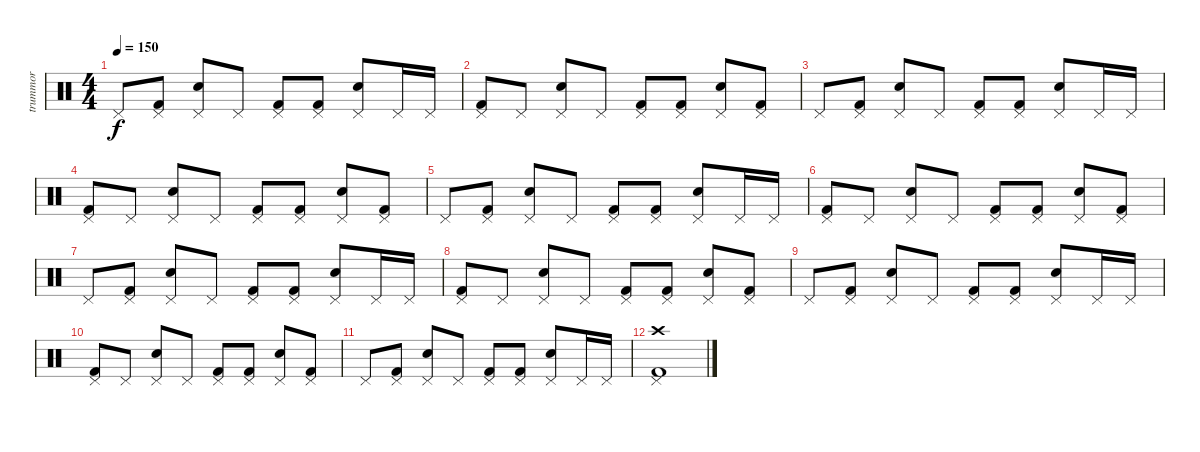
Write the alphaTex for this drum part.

\track ("trummor" "trummor") {instrument percussion}
\staff {score}
\articulation defaults
\ts (4 4)
\tempo 150
\clef neutral
\ks c "Pedal Hi-Hat (hit)".8{dy f}
("Pedal Hi-Hat (hit)" "Kick (hit) 2").8 ("Pedal Hi-Hat (hit)" "Snare (hit) 2").8 "Pedal Hi-Hat (hit)".8 ("Pedal Hi-Hat (hit)" "Kick (hit) 2").8 ("Pedal Hi-Hat (hit)" "Kick (hit) 2").8 ("Pedal Hi-Hat (hit)" "Snare (hit) 2").8 "Pedal Hi-Hat (hit)".16 "Pedal Hi-Hat (hit)".16 |
("Pedal Hi-Hat (hit)" "Kick (hit) 2").8 "Pedal Hi-Hat (hit)".8 ("Pedal Hi-Hat (hit)" "Snare (hit) 2").8 "Pedal Hi-Hat (hit)".8 ("Pedal Hi-Hat (hit)" "Kick (hit) 2").8 ("Pedal Hi-Hat (hit)" "Kick (hit) 2").8 ("Pedal Hi-Hat (hit)" "Snare (hit) 2").8 ("Pedal Hi-Hat (hit)" "Kick (hit) 2").8 |
"Pedal Hi-Hat (hit)".8 ("Pedal Hi-Hat (hit)" "Kick (hit) 2").8 ("Pedal Hi-Hat (hit)" "Snare (hit) 2").8 "Pedal Hi-Hat (hit)".8 ("Pedal Hi-Hat (hit)" "Kick (hit) 2").8 ("Pedal Hi-Hat (hit)" "Kick (hit) 2").8 ("Pedal Hi-Hat (hit)" "Snare (hit) 2").8 "Pedal Hi-Hat (hit)".16 "Pedal Hi-Hat (hit)".16 |
("Pedal Hi-Hat (hit)" "Kick (hit) 2").8 "Pedal Hi-Hat (hit)".8 ("Pedal Hi-Hat (hit)" "Snare (hit) 2").8 "Pedal Hi-Hat (hit)".8 ("Pedal Hi-Hat (hit)" "Kick (hit) 2").8 ("Pedal Hi-Hat (hit)" "Kick (hit) 2").8 ("Pedal Hi-Hat (hit)" "Snare (hit) 2").8 ("Pedal Hi-Hat (hit)" "Kick (hit) 2").8 |
"Pedal Hi-Hat (hit)".8 ("Pedal Hi-Hat (hit)" "Kick (hit) 2").8 ("Pedal Hi-Hat (hit)" "Snare (hit) 2").8 "Pedal Hi-Hat (hit)".8 ("Pedal Hi-Hat (hit)" "Kick (hit) 2").8 ("Pedal Hi-Hat (hit)" "Kick (hit) 2").8 ("Pedal Hi-Hat (hit)" "Snare (hit) 2").8 "Pedal Hi-Hat (hit)".16 "Pedal Hi-Hat (hit)".16 |
("Pedal Hi-Hat (hit)" "Kick (hit) 2").8 "Pedal Hi-Hat (hit)".8 ("Pedal Hi-Hat (hit)" "Snare (hit) 2").8 "Pedal Hi-Hat (hit)".8 ("Pedal Hi-Hat (hit)" "Kick (hit) 2").8 ("Pedal Hi-Hat (hit)" "Kick (hit) 2").8 ("Pedal Hi-Hat (hit)" "Snare (hit) 2").8 ("Pedal Hi-Hat (hit)" "Kick (hit) 2").8 |
"Pedal Hi-Hat (hit)".8 ("Pedal Hi-Hat (hit)" "Kick (hit) 2").8 ("Pedal Hi-Hat (hit)" "Snare (hit) 2").8 "Pedal Hi-Hat (hit)".8 ("Pedal Hi-Hat (hit)" "Kick (hit) 2").8 ("Pedal Hi-Hat (hit)" "Kick (hit) 2").8 ("Pedal Hi-Hat (hit)" "Snare (hit) 2").8 "Pedal Hi-Hat (hit)".16 "Pedal Hi-Hat (hit)".16 |
("Pedal Hi-Hat (hit)" "Kick (hit) 2").8 "Pedal Hi-Hat (hit)".8 ("Pedal Hi-Hat (hit)" "Snare (hit) 2").8 "Pedal Hi-Hat (hit)".8 ("Pedal Hi-Hat (hit)" "Kick (hit) 2").8 ("Pedal Hi-Hat (hit)" "Kick (hit) 2").8 ("Pedal Hi-Hat (hit)" "Snare (hit) 2").8 ("Pedal Hi-Hat (hit)" "Kick (hit) 2").8 |
"Pedal Hi-Hat (hit)".8 ("Pedal Hi-Hat (hit)" "Kick (hit) 2").8 ("Pedal Hi-Hat (hit)" "Snare (hit) 2").8 "Pedal Hi-Hat (hit)".8 ("Pedal Hi-Hat (hit)" "Kick (hit) 2").8 ("Pedal Hi-Hat (hit)" "Kick (hit) 2").8 ("Pedal Hi-Hat (hit)" "Snare (hit) 2").8 "Pedal Hi-Hat (hit)".16 "Pedal Hi-Hat (hit)".16 |
("Pedal Hi-Hat (hit)" "Kick (hit) 2").8 "Pedal Hi-Hat (hit)".8 ("Pedal Hi-Hat (hit)" "Snare (hit) 2").8 "Pedal Hi-Hat (hit)".8 ("Pedal Hi-Hat (hit)" "Kick (hit) 2").8 ("Pedal Hi-Hat (hit)" "Kick (hit) 2").8 ("Pedal Hi-Hat (hit)" "Snare (hit) 2").8 ("Pedal Hi-Hat (hit)" "Kick (hit) 2").8 |
"Pedal Hi-Hat (hit)".8 ("Pedal Hi-Hat (hit)" "Kick (hit) 2").8 ("Pedal Hi-Hat (hit)" "Snare (hit) 2").8 "Pedal Hi-Hat (hit)".8 ("Pedal Hi-Hat (hit)" "Kick (hit) 2").8 ("Pedal Hi-Hat (hit)" "Kick (hit) 2").8 ("Pedal Hi-Hat (hit)" "Snare (hit) 2").8 "Pedal Hi-Hat (hit)".16 "Pedal Hi-Hat (hit)".16 |
("Pedal Hi-Hat (hit)" "Kick (hit) 2" "Crash high (hit)").1
